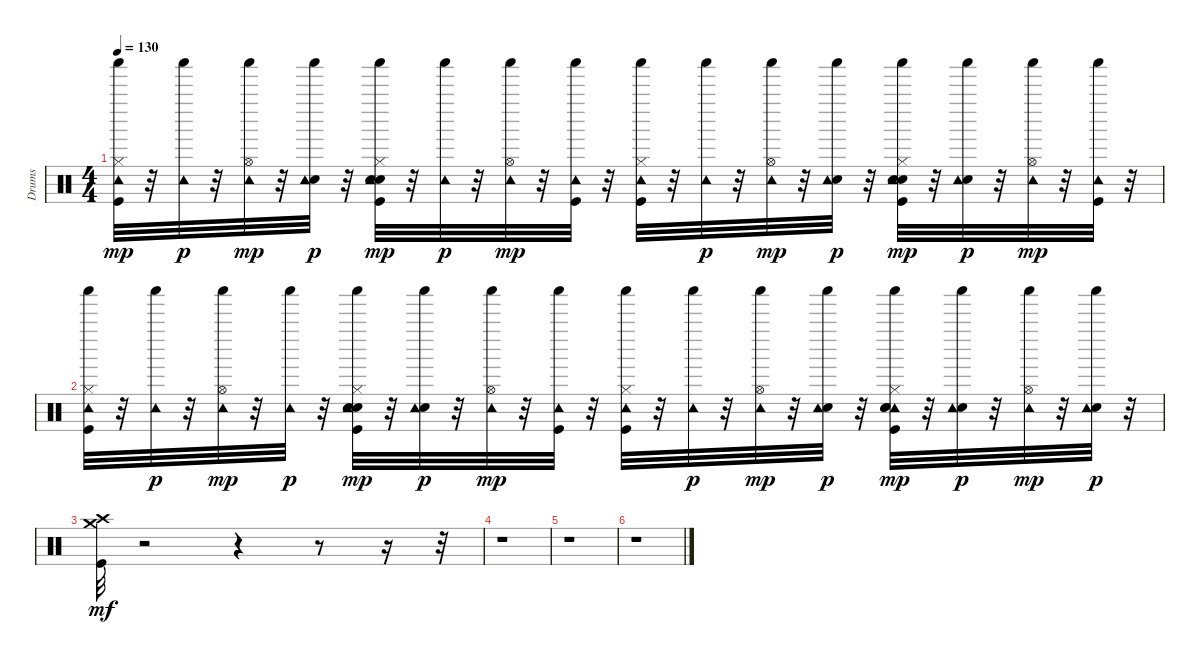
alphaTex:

\track ("Drums" "Drums") {instrument percussion}
\staff {score}
\articulation defaults
\ts (4 4)
\tempo 130
\clef neutral
\ks c
("Kick (hit)" "Hi-Hat (closed)" "Tambourine (hit)" "Shaker (hit)").32{dy mp} r.32 ("Tambourine (hit)" "Shaker (hit)").32{dy p} r.32 ("Tambourine (hit)" "Hi-Hat (open)" "Shaker (hit)").32{dy mp} r.32 ("Electric Snare (hit)" "Tambourine (hit)" "Shaker (hit)").32{dy p} r.32 ("Kick (hit)" "Hi-Hat (closed)" "Hand Clap (hit)" "Tambourine (hit)" "Shaker (hit)" "Snare (hit) 2").32{dy mp} r.32 ("Tambourine (hit)" "Shaker (hit)").32{dy p} r.32 ("Tambourine (hit)" "Hi-Hat (open)" "Shaker (hit)").32{dy mp} r.32 ("Tambourine (hit)" "Shaker (hit)" "Kick (hit)").32 r.32 ("Kick (hit)" "Hi-Hat (closed)" "Tambourine (hit)" "Shaker (hit)").32 r.32 ("Tambourine (hit)" "Shaker (hit)").32{dy p} r.32 ("Tambourine (hit)" "Hi-Hat (open)" "Shaker (hit)").32{dy mp} r.32 ("Electric Snare (hit)" "Tambourine (hit)" "Shaker (hit)").32{dy p} r.32 ("Kick (hit)" "Hi-Hat (closed)" "Hand Clap (hit)" "Tambourine (hit)" "Shaker (hit)" "Snare (hit) 2").32{dy mp} r.32 ("Electric Snare (hit)" "Tambourine (hit)" "Shaker (hit)").32{dy p} r.32 ("Tambourine (hit)" "Hi-Hat (open)" "Shaker (hit)").32{dy mp} r.32 ("Tambourine (hit)" "Shaker (hit)" "Kick (hit)").32 r.32 |
("Kick (hit)" "Hi-Hat (closed)" "Tambourine (hit)" "Shaker (hit)").32 r.32 ("Tambourine (hit)" "Shaker (hit)").32{dy p} r.32 ("Tambourine (hit)" "Hi-Hat (open)" "Shaker (hit)").32{dy mp} r.32 ("Tambourine (hit)" "Shaker (hit)").32{dy p} r.32 ("Kick (hit)" "Hi-Hat (closed)" "Hand Clap (hit)" "Tambourine (hit)" "Shaker (hit)" "Snare (hit) 2").32{dy mp} r.32 ("Electric Snare (hit)" "Tambourine (hit)" "Shaker (hit)").32{dy p} r.32 ("Tambourine (hit)" "Hi-Hat (open)" "Shaker (hit)").32{dy mp} r.32 ("Tambourine (hit)" "Shaker (hit)" "Kick (hit)").32 r.32 ("Kick (hit)" "Hi-Hat (closed)" "Tambourine (hit)" "Shaker (hit)").32 r.32 ("Tambourine (hit)" "Shaker (hit)").32{dy p} r.32 ("Tambourine (hit)" "Hi-Hat (open)" "Shaker (hit)").32{dy mp} r.32 ("Electric Snare (hit)" "Tambourine (hit)" "Shaker (hit)").32{dy p} r.32 ("Kick (hit)" "Hi-Hat (closed)" "Tambourine (hit)" "Shaker (hit)" "Hand Clap (hit)" "Snare (hit) 2").32{dy mp} r.32 ("Electric Snare (hit)" "Tambourine (hit)" "Shaker (hit)").32{dy p} r.32 ("Tambourine (hit)" "Hi-Hat (open)" "Shaker (hit)").32{dy mp} r.32 ("Electric Snare (hit)" "Tambourine (hit)" "Shaker (hit)").32{dy p} r.32 |
("Kick (hit)" "Crash high (hit)" "Crash medium (hit)").32{dy mf} r.2 r.4 r.8 r.16 r.32 |
r.1 |
r.1 |
r.1
